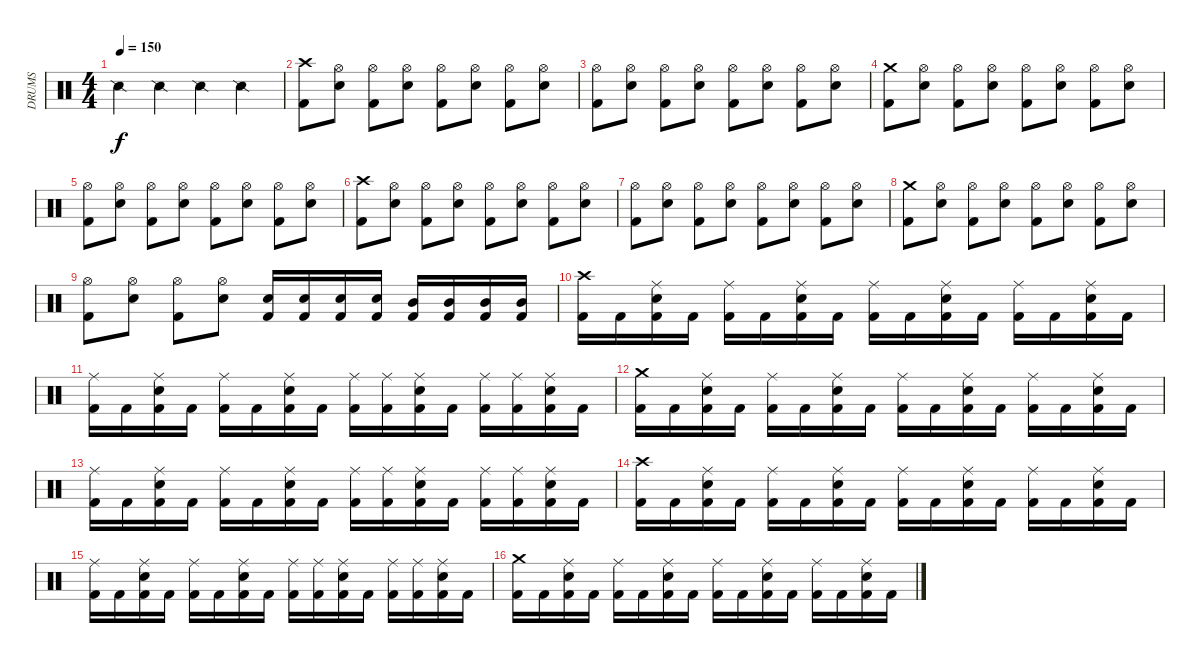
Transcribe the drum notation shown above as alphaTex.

\track ("DRUMS" "DRUMS") {instrument percussion}
\staff {score}
\articulation defaults
\ts (4 4)
\tempo 150
\clef neutral
\ks c "Snare (side stick) 2".4{dy f} "Snare (side stick) 2".4 "Snare (side stick) 2".4 "Snare (side stick) 2".4
|
("Kick (hit) 2" "Crash high (hit)").8 ("Snare (hit) 2" "Hi-Hat (open)").8 ("Kick (hit) 2" "Hi-Hat (open)").8 ("Snare (hit) 2" "Hi-Hat (open)").8 ("Kick (hit) 2" "Hi-Hat (open)").8 ("Snare (hit) 2" "Hi-Hat (open)").8 ("Kick (hit) 2" "Hi-Hat (open)").8 ("Snare (hit) 2" "Hi-Hat (open)").8 |
("Kick (hit) 2" "Hi-Hat (open)").8 ("Snare (hit) 2" "Hi-Hat (open)").8 ("Kick (hit) 2" "Hi-Hat (open)").8 ("Snare (hit) 2" "Hi-Hat (open)").8 ("Kick (hit) 2" "Hi-Hat (open)").8 ("Snare (hit) 2" "Hi-Hat (open)").8 ("Kick (hit) 2" "Hi-Hat (open)").8 ("Snare (hit) 2" "Hi-Hat (open)").8 |
("Kick (hit) 2" "Crash medium (hit)").8 ("Snare (hit) 2" "Hi-Hat (open)").8 ("Kick (hit) 2" "Hi-Hat (open)").8 ("Snare (hit) 2" "Hi-Hat (open)").8 ("Kick (hit) 2" "Hi-Hat (open)").8 ("Snare (hit) 2" "Hi-Hat (open)").8 ("Kick (hit) 2" "Hi-Hat (open)").8 ("Snare (hit) 2" "Hi-Hat (open)").8 |
("Kick (hit) 2" "Hi-Hat (open)").8 ("Snare (hit) 2" "Hi-Hat (open)").8 ("Kick (hit) 2" "Hi-Hat (open)").8 ("Snare (hit) 2" "Hi-Hat (open)").8 ("Kick (hit) 2" "Hi-Hat (open)").8 ("Snare (hit) 2" "Hi-Hat (open)").8 ("Kick (hit) 2" "Hi-Hat (open)").8 ("Snare (hit) 2" "Hi-Hat (open)").8 |
("Kick (hit) 2" "Crash high (hit)").8 ("Snare (hit) 2" "Hi-Hat (open)").8 ("Kick (hit) 2" "Hi-Hat (open)").8 ("Snare (hit) 2" "Hi-Hat (open)").8 ("Kick (hit) 2" "Hi-Hat (open)").8 ("Snare (hit) 2" "Hi-Hat (open)").8 ("Kick (hit) 2" "Hi-Hat (open)").8 ("Snare (hit) 2" "Hi-Hat (open)").8 |
("Kick (hit) 2" "Hi-Hat (open)").8 ("Snare (hit) 2" "Hi-Hat (open)").8 ("Kick (hit) 2" "Hi-Hat (open)").8 ("Snare (hit) 2" "Hi-Hat (open)").8 ("Kick (hit) 2" "Hi-Hat (open)").8 ("Snare (hit) 2" "Hi-Hat (open)").8 ("Kick (hit) 2" "Hi-Hat (open)").8 ("Snare (hit) 2" "Hi-Hat (open)").8 |
("Kick (hit) 2" "Crash medium (hit)").8 ("Snare (hit) 2" "Hi-Hat (open)").8 ("Kick (hit) 2" "Hi-Hat (open)").8 ("Snare (hit) 2" "Hi-Hat (open)").8 ("Kick (hit) 2" "Hi-Hat (open)").8 ("Snare (hit) 2" "Hi-Hat (open)").8 ("Kick (hit) 2" "Hi-Hat (open)").8 ("Snare (hit) 2" "Hi-Hat (open)").8 |
("Kick (hit) 2" "Hi-Hat (open)").8 ("Snare (hit) 2" "Hi-Hat (open)").8 ("Kick (hit) 2" "Hi-Hat (open)").8 ("Snare (hit) 2" "Hi-Hat (open)").8 ("Kick (hit) 2" "Snare (hit) 2").16 ("Kick (hit) 2" "Snare (hit) 2").16 ("Kick (hit) 2" "Snare (hit) 2").16 ("Kick (hit) 2" "Snare (hit) 2").16 ("Kick (hit) 2" "Mid Tom (hit)").16 ("Kick (hit) 2" "Mid Tom (hit)").16 ("Kick (hit) 2" "Mid Tom (hit)").16 ("Kick (hit) 2" "Mid Tom (hit)").16 |
("Kick (hit) 2" "Crash high (hit)").16 "Kick (hit) 2".16 ("Kick (hit) 2" "Snare (hit) 2" "Ride (middle)").16 "Kick (hit) 2".16 ("Kick (hit) 2" "Ride (middle)").16 "Kick (hit) 2".16 ("Kick (hit) 2" "Snare (hit) 2" "Ride (middle)").16 "Kick (hit) 2".16 ("Kick (hit) 2" "Ride (middle)").16 "Kick (hit) 2".16 ("Kick (hit) 2" "Snare (hit) 2" "Ride (middle)").16 "Kick (hit) 2".16 ("Kick (hit) 2" "Ride (middle)").16 "Kick (hit) 2".16 ("Kick (hit) 2" "Snare (hit) 2" "Ride (middle)").16 "Kick (hit) 2".16 |
("Kick (hit) 2" "Ride (middle)").16 "Kick (hit) 2".16 ("Kick (hit) 2" "Snare (hit) 2" "Ride (middle)").16 "Kick (hit) 2".16 ("Kick (hit) 2" "Ride (middle)").16 "Kick (hit) 2".16 ("Kick (hit) 2" "Snare (hit) 2" "Ride (middle)").16 "Kick (hit) 2".16 ("Kick (hit) 2" "Ride (middle)").16 ("Kick (hit) 2" "Ride (middle)").16 ("Kick (hit) 2" "Snare (hit) 2" "Ride (middle)").16 "Kick (hit) 2".16 ("Kick (hit) 2" "Ride (middle)").16 ("Kick (hit) 2" "Ride (middle)").16 ("Kick (hit) 2" "Snare (hit) 2" "Ride (middle)").16 "Kick (hit) 2".16 |
("Kick (hit) 2" "Crash medium (hit)").16 "Kick (hit) 2".16 ("Kick (hit) 2" "Snare (hit) 2" "Ride (middle)").16 "Kick (hit) 2".16 ("Kick (hit) 2" "Ride (middle)").16 "Kick (hit) 2".16 ("Kick (hit) 2" "Snare (hit) 2" "Ride (middle)").16 "Kick (hit) 2".16 ("Kick (hit) 2" "Ride (middle)").16 "Kick (hit) 2".16 ("Kick (hit) 2" "Snare (hit) 2" "Ride (middle)").16 "Kick (hit) 2".16 ("Kick (hit) 2" "Ride (middle)").16 "Kick (hit) 2".16 ("Kick (hit) 2" "Snare (hit) 2" "Ride (middle)").16 "Kick (hit) 2".16 |
("Kick (hit) 2" "Ride (middle)").16 "Kick (hit) 2".16 ("Kick (hit) 2" "Snare (hit) 2" "Ride (middle)").16 "Kick (hit) 2".16 ("Kick (hit) 2" "Ride (middle)").16 "Kick (hit) 2".16 ("Kick (hit) 2" "Snare (hit) 2" "Ride (middle)").16 "Kick (hit) 2".16 ("Kick (hit) 2" "Ride (middle)").16 ("Kick (hit) 2" "Ride (middle)").16 ("Kick (hit) 2" "Snare (hit) 2" "Ride (middle)").16 "Kick (hit) 2".16 ("Kick (hit) 2" "Ride (middle)").16 ("Kick (hit) 2" "Ride (middle)").16 ("Kick (hit) 2" "Snare (hit) 2" "Ride (middle)").16 "Kick (hit) 2".16 |
("Kick (hit) 2" "Crash high (hit)").16 "Kick (hit) 2".16 ("Kick (hit) 2" "Snare (hit) 2" "Ride (middle)").16 "Kick (hit) 2".16 ("Kick (hit) 2" "Ride (middle)").16 "Kick (hit) 2".16 ("Kick (hit) 2" "Snare (hit) 2" "Ride (middle)").16 "Kick (hit) 2".16 ("Kick (hit) 2" "Ride (middle)").16 "Kick (hit) 2".16 ("Kick (hit) 2" "Snare (hit) 2" "Ride (middle)").16 "Kick (hit) 2".16 ("Kick (hit) 2" "Ride (middle)").16 "Kick (hit) 2".16 ("Kick (hit) 2" "Snare (hit) 2" "Ride (middle)").16 "Kick (hit) 2".16 |
("Kick (hit) 2" "Ride (middle)").16 "Kick (hit) 2".16 ("Kick (hit) 2" "Snare (hit) 2" "Ride (middle)").16 "Kick (hit) 2".16 ("Kick (hit) 2" "Ride (middle)").16 "Kick (hit) 2".16 ("Kick (hit) 2" "Snare (hit) 2" "Ride (middle)").16 "Kick (hit) 2".16 ("Kick (hit) 2" "Ride (middle)").16 ("Kick (hit) 2" "Ride (middle)").16 ("Kick (hit) 2" "Snare (hit) 2" "Ride (middle)").16 "Kick (hit) 2".16 ("Kick (hit) 2" "Ride (middle)").16 ("Kick (hit) 2" "Ride (middle)").16 ("Kick (hit) 2" "Snare (hit) 2" "Ride (middle)").16 "Kick (hit) 2".16 |
("Kick (hit) 2" "Crash medium (hit)").16 "Kick (hit) 2".16 ("Kick (hit) 2" "Snare (hit) 2" "Ride (middle)").16 "Kick (hit) 2".16 ("Kick (hit) 2" "Ride (middle)").16 "Kick (hit) 2".16 ("Kick (hit) 2" "Snare (hit) 2" "Ride (middle)").16 "Kick (hit) 2".16 ("Kick (hit) 2" "Ride (middle)").16 "Kick (hit) 2".16 ("Kick (hit) 2" "Snare (hit) 2" "Ride (middle)").16 "Kick (hit) 2".16 ("Kick (hit) 2" "Ride (middle)").16 "Kick (hit) 2".16 ("Kick (hit) 2" "Snare (hit) 2" "Ride (middle)").16 "Kick (hit) 2".16
